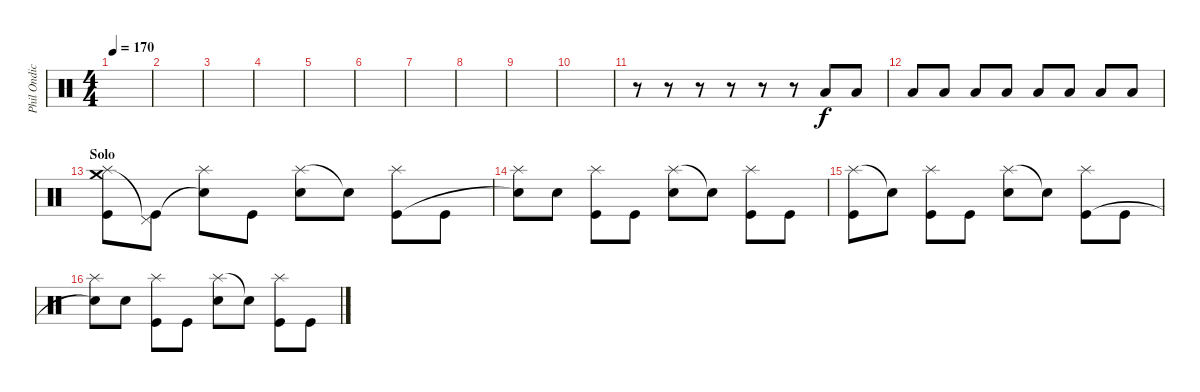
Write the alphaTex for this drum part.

\track ("Phil Ondich (Drums)" "Phil Ondic") {instrument percussion}
\staff {score}
\articulation defaults
\ts (4 4)
\tempo 170
\clef neutral
\ks c
|
|
|
|
|
|
|
|
|
|
r.8 r.8 r.8 r.8 r.8 r.8 "Low Floor Tom (hit)".8 "Low Floor Tom (hit)".8 |
"Low Floor Tom (hit)".8 "Low Floor Tom (hit)".8 "Low Floor Tom (hit)".8 "Low Floor Tom (hit)".8 "Low Floor Tom (hit)".8 "Low Floor Tom (hit)".8 "Low Floor Tom (hit)".8 "Low Floor Tom (hit)".8 |
\section ("" "Solo")
("Crash medium (hit)" "Splash (hit)" "Kick (hit)").8 ("Pedal Hi-Hat (hit)"{t} "Kick (hit)").8 ("Splash (hit)" "Snare (hit)"{t}).8 "Kick (hit)".8 ("Splash (hit)" "Electric Snare (hit)").8 "Snare (hit)"{t}.8 ("Splash (hit)" "Kick (hit)").8 "Kick (hit)".8 |
("Splash (hit)" "Snare (hit)"{t}).8 "Electric Snare (hit)".8 ("Splash (hit)" "Kick (hit)").8 "Kick (hit)".8 ("Splash (hit)" "Electric Snare (hit)").8 "Snare (hit)"{t}.8 ("Splash (hit)" "Kick (hit)").8 "Kick (hit)".8 |
("Splash (hit)" "Kick (hit)").8 "Snare (hit)"{t}.8 ("Splash (hit)" "Kick (hit)").8 "Kick (hit)".8 ("Splash (hit)" "Electric Snare (hit)").8 "Snare (hit)"{t}.8 ("Splash (hit)" "Kick (hit)").8 "Kick (hit)".8 |
("Splash (hit)" "Snare (hit)"{t}).8 "Electric Snare (hit)".8 ("Splash (hit)" "Kick (hit)").8 "Kick (hit)".8 ("Splash (hit)" "Electric Snare (hit)").8 "Snare (hit)"{t}.8 ("Splash (hit)" "Kick (hit)").8 "Kick (hit)".8
